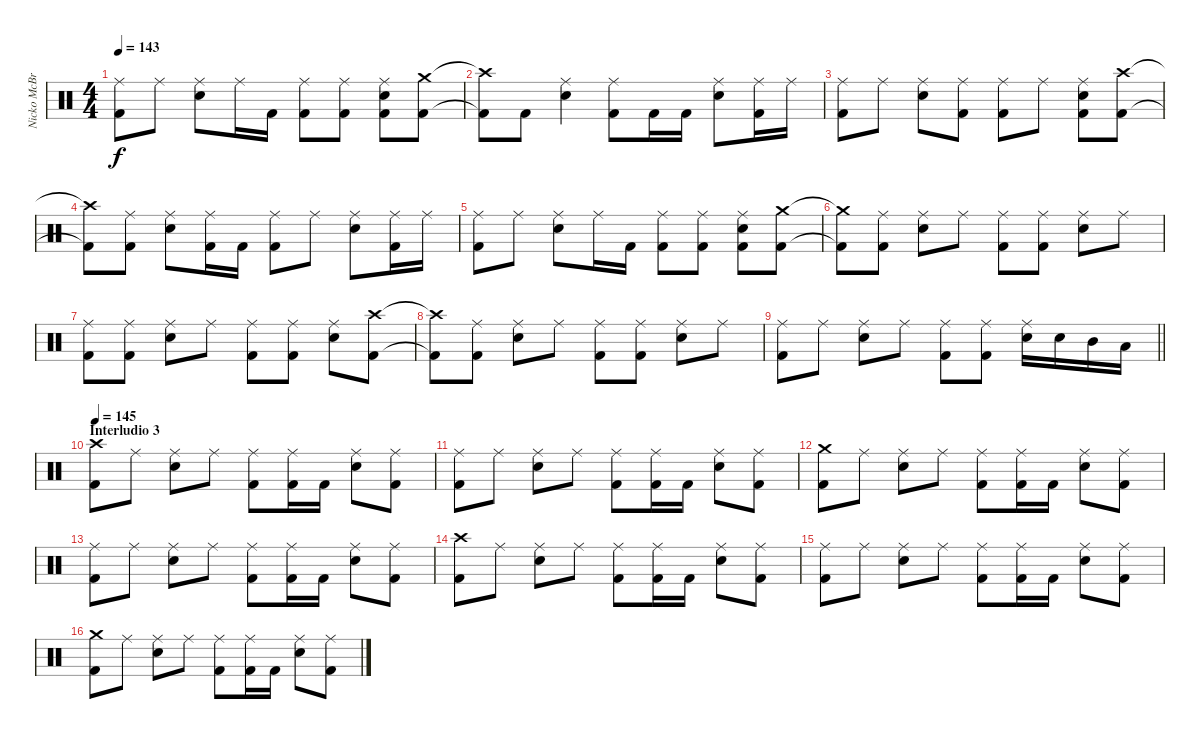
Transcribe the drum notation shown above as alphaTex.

\track ("Nicko McBrain" "Nicko McBr") {instrument percussion}
\staff {score}
\articulation defaults
\ts (4 4)
\tempo 143
\clef neutral
\ks c
("Ride (middle)" "Kick (hit) 2").8{dy f} "Ride (middle)".8 ("Ride (middle)" "Snare (hit) 2").8 "Ride (middle)".16 "Kick (hit) 2".16 ("Ride (middle)" "Kick (hit) 2").8 ("Ride (middle)" "Kick (hit) 2").8 ("Ride (middle)" "Snare (hit) 2" "Kick (hit) 2").8 ("Crash medium (hit)" "Kick (hit) 2").8 |
("Crash high (hit)"{t} "Kick (hit) 2"{t}).8 "Kick (hit) 2".8 ("Ride (middle)" "Snare (hit) 2").4 ("Ride (middle)" "Kick (hit) 2").8 "Kick (hit) 2".16 "Kick (hit) 2".16 ("Ride (middle)" "Snare (hit) 2").8 ("Ride (middle)" "Kick (hit) 2").16 "Ride (middle)".16 |
("Ride (middle)" "Kick (hit) 2").8 "Ride (middle)".8 ("Ride (middle)" "Snare (hit) 2").8 ("Ride (middle)" "Kick (hit) 2").8 ("Ride (middle)" "Kick (hit) 2").8 "Ride (middle)".8 ("Ride (middle)" "Snare (hit) 2" "Kick (hit) 2").8 ("Crash high (hit)" "Kick (hit) 2").8 |
("Crash high (hit)"{t} "Kick (hit) 2"{t}).8 ("Ride (middle)" "Kick (hit) 2").8 ("Ride (middle)" "Snare (hit) 2").8 ("Ride (middle)" "Kick (hit) 2").16 "Kick (hit) 2".16 ("Ride (middle)" "Kick (hit) 2").8 "Ride (middle)".8 ("Ride (middle)" "Snare (hit) 2").8 ("Ride (middle)" "Kick (hit) 2").16 "Ride (middle)".16 |
("Ride (middle)" "Kick (hit) 2").8 "Ride (middle)".8 ("Ride (middle)" "Snare (hit) 2").8 "Ride (middle)".16 "Kick (hit) 2".16 ("Ride (middle)" "Kick (hit) 2").8 ("Ride (middle)" "Kick (hit) 2").8 ("Ride (middle)" "Snare (hit) 2" "Kick (hit) 2").8 ("Crash medium (hit)" "Kick (hit) 2").8 |
("Crash medium (hit)"{t} "Kick (hit) 2"{t}).8 ("Ride (middle)" "Kick (hit) 2").8 ("Ride (middle)" "Snare (hit) 2").8 "Ride (middle)".8 ("Ride (middle)" "Kick (hit) 2").8 ("Ride (middle)" "Kick (hit) 2").8 ("Ride (middle)" "Snare (hit) 2").8 "Ride (middle)".8 |
("Ride (middle)" "Kick (hit) 2").8 ("Ride (middle)" "Kick (hit) 2").8 ("Ride (middle)" "Snare (hit) 2").8 "Ride (middle)".8 ("Ride (middle)" "Kick (hit) 2").8 ("Ride (middle)" "Kick (hit) 2").8 ("Ride (middle)" "Snare (hit) 2").8 ("Crash high (hit)" "Kick (hit) 2").8 |
("Crash high (hit)"{t} "Kick (hit) 2"{t}).8 ("Ride (middle)" "Kick (hit) 2").8 ("Ride (middle)" "Snare (hit) 2").8 "Ride (middle)".8 ("Ride (middle)" "Kick (hit) 2").8 ("Ride (middle)" "Kick (hit) 2").8 ("Ride (middle)" "Snare (hit) 2").8 "Ride (middle)".8 |
\barLineRight lightlight
("Ride (middle)" "Kick (hit) 2").8 "Ride (middle)".8 ("Ride (middle)" "Snare (hit) 2").8 "Ride (middle)".8 ("Ride (middle)" "Kick (hit) 2").8 ("Ride (middle)" "Kick (hit) 2").8 ("Ride (middle)" "Snare (hit) 2").16 "Snare (hit) 2".16 "Mid Tom (hit)".16 "Low Tom (hit)".16 |
\section ("" "Interludio 3")
\tempo 145
("Crash high (hit)" "Kick (hit) 2").8 "Ride (middle)".8 ("Ride (middle)" "Snare (hit) 2").8 "Ride (middle)".8 ("Ride (middle)" "Kick (hit) 2").8 ("Ride (middle)" "Kick (hit) 2").16 "Kick (hit) 2".16 ("Ride (middle)" "Snare (hit) 2").8 ("Ride (middle)" "Kick (hit) 2").8 |
("Ride (middle)" "Kick (hit) 2").8 "Ride (middle)".8 ("Ride (middle)" "Snare (hit) 2").8 "Ride (middle)".8 ("Ride (middle)" "Kick (hit) 2").8 ("Ride (middle)" "Kick (hit) 2").16 "Kick (hit) 2".16 ("Ride (middle)" "Snare (hit) 2").8 ("Ride (middle)" "Kick (hit) 2").8 |
("Crash medium (hit)" "Kick (hit) 2").8 "Ride (middle)".8 ("Ride (middle)" "Snare (hit) 2").8 "Ride (middle)".8 ("Ride (middle)" "Kick (hit) 2").8 ("Ride (middle)" "Kick (hit) 2").16 "Kick (hit) 2".16 ("Ride (middle)" "Snare (hit) 2").8 ("Ride (middle)" "Kick (hit) 2").8 |
("Ride (middle)" "Kick (hit) 2").8 "Ride (middle)".8 ("Ride (middle)" "Snare (hit) 2").8 "Ride (middle)".8 ("Ride (middle)" "Kick (hit) 2").8 ("Ride (middle)" "Kick (hit) 2").16 "Kick (hit) 2".16 ("Ride (middle)" "Snare (hit) 2").8 ("Ride (middle)" "Kick (hit) 2").8 |
("Crash high (hit)" "Kick (hit) 2").8 "Ride (middle)".8 ("Ride (middle)" "Snare (hit) 2").8 "Ride (middle)".8 ("Ride (middle)" "Kick (hit) 2").8 ("Ride (middle)" "Kick (hit) 2").16 "Kick (hit) 2".16 ("Ride (middle)" "Snare (hit) 2").8 ("Ride (middle)" "Kick (hit) 2").8 |
("Ride (middle)" "Kick (hit) 2").8 "Ride (middle)".8 ("Ride (middle)" "Snare (hit) 2").8 "Ride (middle)".8 ("Ride (middle)" "Kick (hit) 2").8 ("Ride (middle)" "Kick (hit) 2").16 "Kick (hit) 2".16 ("Ride (middle)" "Snare (hit) 2").8 ("Ride (middle)" "Kick (hit) 2").8 |
("Crash medium (hit)" "Kick (hit) 2").8 "Ride (middle)".8 ("Ride (middle)" "Snare (hit) 2").8 "Ride (middle)".8 ("Ride (middle)" "Kick (hit) 2").8 ("Ride (middle)" "Kick (hit) 2").16 "Kick (hit) 2".16 ("Ride (middle)" "Snare (hit) 2").8 ("Ride (middle)" "Kick (hit) 2").8
